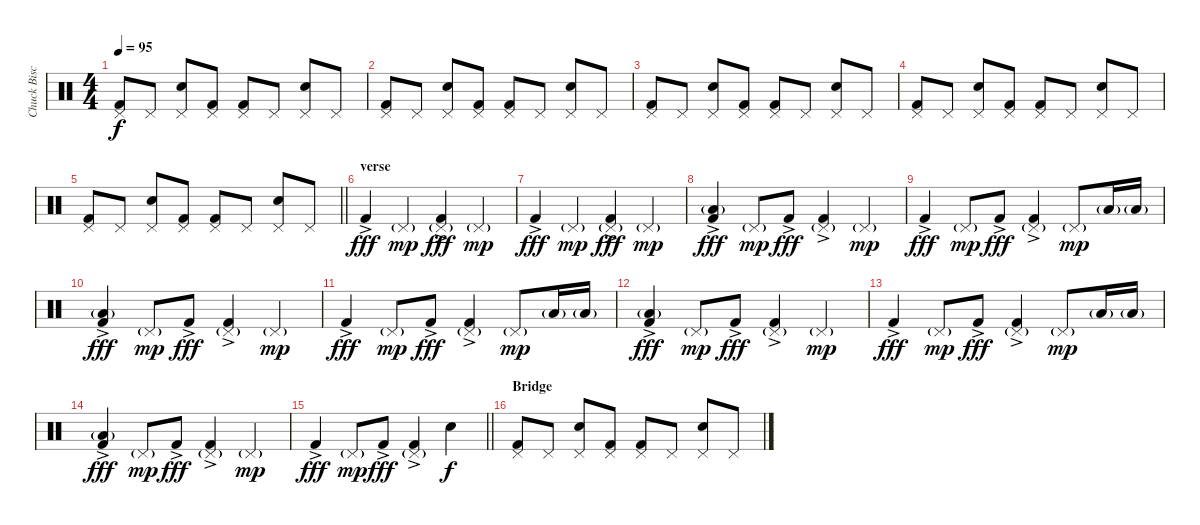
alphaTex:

\track ("Chuck Biscuits" "Chuck Bisc") {instrument percussion}
\staff {score}
\articulation defaults
\ts (4 4)
\tempo 95
\clef neutral
\ks c
("Pedal Hi-Hat (hit)" "Kick (hit) 2").8{dy f} "Pedal Hi-Hat (hit)".8 ("Pedal Hi-Hat (hit)" "Electric Snare (hit)").8 ("Pedal Hi-Hat (hit)" "Kick (hit) 2").8 ("Pedal Hi-Hat (hit)" "Kick (hit) 2").8 "Pedal Hi-Hat (hit)".8 ("Pedal Hi-Hat (hit)" "Electric Snare (hit)").8 "Pedal Hi-Hat (hit)".8 |
("Pedal Hi-Hat (hit)" "Kick (hit) 2").8 "Pedal Hi-Hat (hit)".8 ("Pedal Hi-Hat (hit)" "Electric Snare (hit)").8 ("Pedal Hi-Hat (hit)" "Kick (hit) 2").8 ("Pedal Hi-Hat (hit)" "Kick (hit) 2").8 "Pedal Hi-Hat (hit)".8 ("Pedal Hi-Hat (hit)" "Electric Snare (hit)").8 "Pedal Hi-Hat (hit)".8 |
("Pedal Hi-Hat (hit)" "Kick (hit) 2").8 "Pedal Hi-Hat (hit)".8 ("Pedal Hi-Hat (hit)" "Electric Snare (hit)").8 ("Pedal Hi-Hat (hit)" "Kick (hit) 2").8 ("Pedal Hi-Hat (hit)" "Kick (hit) 2").8 "Pedal Hi-Hat (hit)".8 ("Pedal Hi-Hat (hit)" "Electric Snare (hit)").8 "Pedal Hi-Hat (hit)".8 |
("Pedal Hi-Hat (hit)" "Kick (hit) 2").8 "Pedal Hi-Hat (hit)".8 ("Pedal Hi-Hat (hit)" "Electric Snare (hit)").8 ("Pedal Hi-Hat (hit)" "Kick (hit) 2").8 ("Pedal Hi-Hat (hit)" "Kick (hit) 2").8 "Pedal Hi-Hat (hit)".8 ("Pedal Hi-Hat (hit)" "Electric Snare (hit)").8 "Pedal Hi-Hat (hit)".8 |
\barLineRight lightlight
("Pedal Hi-Hat (hit)" "Kick (hit) 2").8 "Pedal Hi-Hat (hit)".8 ("Pedal Hi-Hat (hit)" "Electric Snare (hit)").8 ("Pedal Hi-Hat (hit)" "Kick (hit) 2").8 ("Pedal Hi-Hat (hit)" "Kick (hit) 2").8 "Pedal Hi-Hat (hit)".8 ("Pedal Hi-Hat (hit)" "Electric Snare (hit)").8 "Pedal Hi-Hat (hit)".8 |
\section ("" "verse")
"Kick (hit) 2"{ac}.4{dy fff} "Pedal Hi-Hat (hit)"{g}.4{dy mp} ("Pedal Hi-Hat (hit)"{g} "Kick (hit) 2"{ac}).4{dy fff} "Pedal Hi-Hat (hit)"{g}.4{dy mp} |
"Kick (hit) 2"{ac}.4{dy fff} "Pedal Hi-Hat (hit)"{g}.4{dy mp} ("Pedal Hi-Hat (hit)"{g} "Kick (hit) 2"{ac}).4{dy fff} "Pedal Hi-Hat (hit)"{g}.4{dy mp} |
("Low Floor Tom (hit)"{g} "Kick (hit) 2"{ac}).4{dy fff} "Pedal Hi-Hat (hit)"{g}.8{dy mp} "Kick (hit) 2"{ac}.8{dy fff} ("Pedal Hi-Hat (hit)"{g} "Kick (hit) 2"{ac}).4 "Pedal Hi-Hat (hit)"{g}.4{dy mp} |
"Kick (hit) 2"{ac}.4{dy fff} "Pedal Hi-Hat (hit)"{g}.8{dy mp} "Kick (hit) 2"{ac}.8{dy fff} ("Pedal Hi-Hat (hit)"{g} "Kick (hit) 2"{ac}).4 "Pedal Hi-Hat (hit)"{g}.8{dy mp} "Low Floor Tom (hit)"{g}.16 "Low Floor Tom (hit)"{g}.16 |
("Low Floor Tom (hit)"{g} "Kick (hit) 2"{ac}).4{dy fff} "Pedal Hi-Hat (hit)"{g}.8{dy mp} "Kick (hit) 2"{ac}.8{dy fff} ("Pedal Hi-Hat (hit)"{g} "Kick (hit) 2"{ac}).4 "Pedal Hi-Hat (hit)"{g}.4{dy mp} |
"Kick (hit) 2"{ac}.4{dy fff} "Pedal Hi-Hat (hit)"{g}.8{dy mp} "Kick (hit) 2"{ac}.8{dy fff} ("Pedal Hi-Hat (hit)"{g} "Kick (hit) 2"{ac}).4 "Pedal Hi-Hat (hit)"{g}.8{dy mp} "Low Floor Tom (hit)"{g}.16 "Low Floor Tom (hit)"{g}.16 |
("Low Floor Tom (hit)"{g} "Kick (hit) 2"{ac}).4{dy fff} "Pedal Hi-Hat (hit)"{g}.8{dy mp} "Kick (hit) 2"{ac}.8{dy fff} ("Pedal Hi-Hat (hit)"{g} "Kick (hit) 2"{ac}).4 "Pedal Hi-Hat (hit)"{g}.4{dy mp} |
"Kick (hit) 2"{ac}.4{dy fff} "Pedal Hi-Hat (hit)"{g}.8{dy mp} "Kick (hit) 2"{ac}.8{dy fff} ("Pedal Hi-Hat (hit)"{g} "Kick (hit) 2"{ac}).4 "Pedal Hi-Hat (hit)"{g}.8{dy mp} "Low Floor Tom (hit)"{g}.16 "Low Floor Tom (hit)"{g}.16 |
("Low Floor Tom (hit)"{g} "Kick (hit) 2"{ac}).4{dy fff} "Pedal Hi-Hat (hit)"{g}.8{dy mp} "Kick (hit) 2"{ac}.8{dy fff} ("Pedal Hi-Hat (hit)"{g} "Kick (hit) 2"{ac}).4 "Pedal Hi-Hat (hit)"{g}.4{dy mp} |
\barLineRight lightlight "Kick (hit) 2"{ac}.4{dy fff} "Pedal Hi-Hat (hit)"{g}.8{dy mp} "Kick (hit) 2"{ac}.8{dy fff}
("Pedal Hi-Hat (hit)"{g} "Kick (hit) 2"{ac}).4 "Electric Snare (hit)".4{dy f} |
\section ("" "Bridge")
("Pedal Hi-Hat (hit)" "Kick (hit) 2").8 "Pedal Hi-Hat (hit)".8 ("Pedal Hi-Hat (hit)" "Electric Snare (hit)").8 ("Pedal Hi-Hat (hit)" "Kick (hit) 2").8 ("Pedal Hi-Hat (hit)" "Kick (hit) 2").8 "Pedal Hi-Hat (hit)".8 ("Pedal Hi-Hat (hit)" "Electric Snare (hit)").8 "Pedal Hi-Hat (hit)".8
